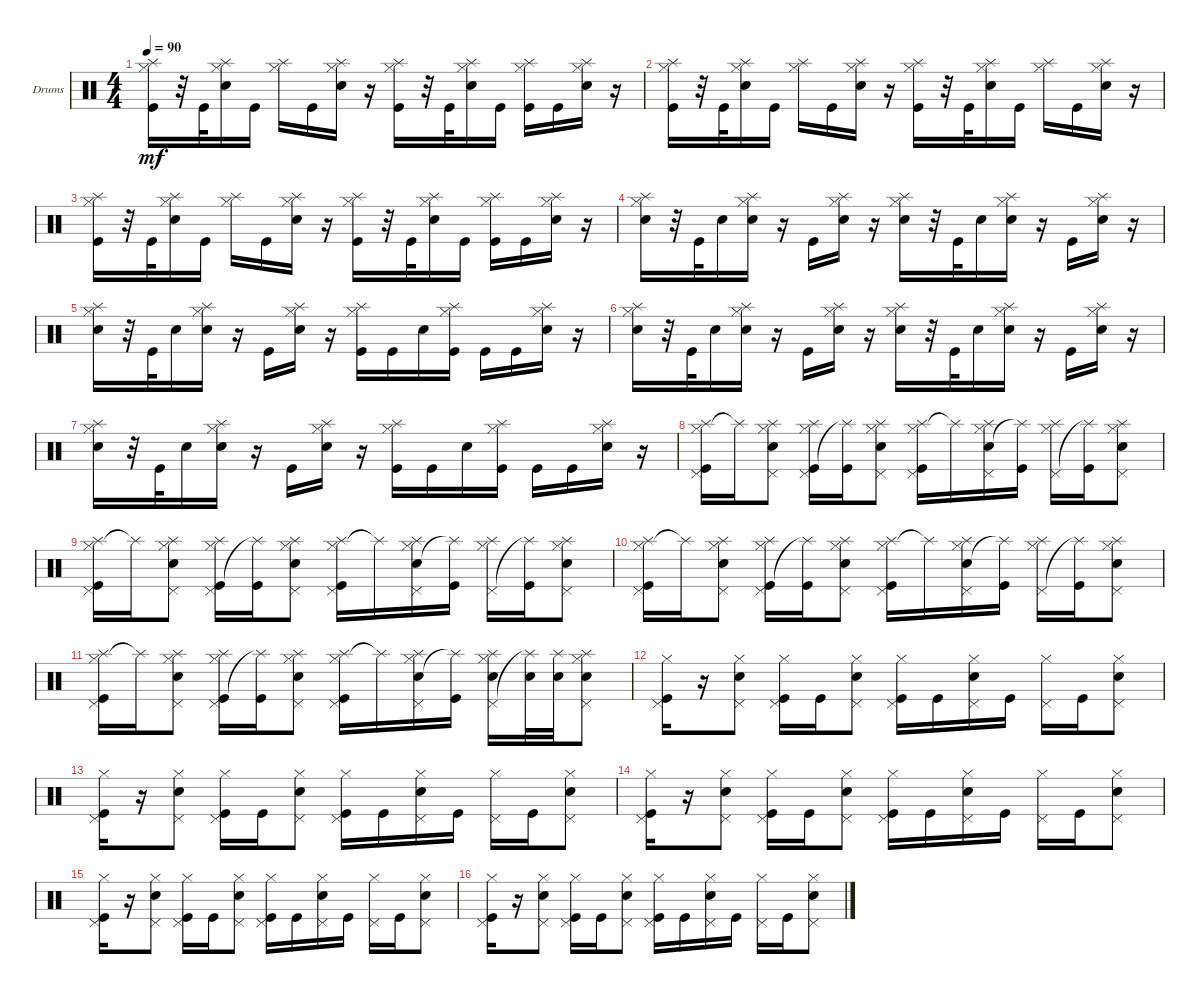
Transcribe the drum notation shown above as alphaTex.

\defaultSystemsLayout 4
\bracketExtendMode groupsimilarinstruments
\firstSystemTrackNameOrientation horizontal
\otherSystemsTrackNameOrientation horizontal
\track ("Drumkit" "Drums") {instrument percussion}
\staff {score}
\articulation defaults
\ts (4 4)
\tempo 90
\clef neutral
\ks c
("Hi-Hat (closed)" "Splash (hit)" "Kick (hit)").16{dy mf} r.32 "Kick (hit)".32 ("Hi-Hat (closed)" "Splash (hit)" "Snare (hit) 2").16 "Kick (hit)".16 ("Splash (hit)" "Hi-Hat (closed)").16 "Kick (hit)".16 ("Snare (hit) 2" "Hi-Hat (closed)" "Splash (hit)").16 r.16 ("Hi-Hat (closed)" "Splash (hit)" "Kick (hit)").16 r.32 "Kick (hit)".32 ("Hi-Hat (closed)" "Splash (hit)" "Snare (hit) 2").16 "Kick (hit)".16 ("Splash (hit)" "Hi-Hat (closed)" "Kick (hit)").16 "Kick (hit)".16 ("Snare (hit) 2" "Hi-Hat (closed)" "Splash (hit)").16 r.16 |
("Hi-Hat (closed)" "Splash (hit)" "Kick (hit)").16 r.32 "Kick (hit)".32 ("Hi-Hat (closed)" "Splash (hit)" "Snare (hit) 2").16 "Kick (hit)".16 ("Splash (hit)" "Hi-Hat (closed)").16 "Kick (hit)".16 ("Snare (hit) 2" "Hi-Hat (closed)" "Splash (hit)").16 r.16 ("Hi-Hat (closed)" "Splash (hit)" "Kick (hit)").16 r.32 "Kick (hit)".32 ("Hi-Hat (closed)" "Splash (hit)" "Snare (hit) 2").16 "Kick (hit)".16 ("Splash (hit)" "Hi-Hat (closed)").16 "Kick (hit)".16 ("Snare (hit) 2" "Hi-Hat (closed)" "Splash (hit)").16 r.16 |
("Hi-Hat (closed)" "Splash (hit)" "Kick (hit)").16 r.32 "Kick (hit)".32 ("Hi-Hat (closed)" "Splash (hit)" "Snare (hit) 2").16 "Kick (hit)".16 ("Splash (hit)" "Hi-Hat (closed)").16 "Kick (hit)".16 ("Snare (hit) 2" "Hi-Hat (closed)" "Splash (hit)").16 r.16 ("Hi-Hat (closed)" "Splash (hit)" "Kick (hit)").16 r.32 "Kick (hit)".32 ("Hi-Hat (closed)" "Splash (hit)" "Snare (hit) 2").16 "Kick (hit)".16 ("Splash (hit)" "Hi-Hat (closed)" "Kick (hit)").16 "Kick (hit)".16 ("Snare (hit) 2" "Hi-Hat (closed)" "Splash (hit)").16 r.16 |
("Hi-Hat (closed)" "Splash (hit)" "Snare (hit) 2").16 r.32 "Kick (hit)".32 "Snare (hit) 2".16 ("Snare (hit) 2" "Hi-Hat (closed)" "Splash (hit)").16 r.16 "Kick (hit)".16 ("Snare (hit) 2" "Splash (hit)" "Hi-Hat (closed)").16 r.16 ("Snare (hit) 2" "Splash (hit)" "Hi-Hat (closed)").16 r.32 "Kick (hit)".32 "Snare (hit) 2".16 ("Snare (hit) 2" "Hi-Hat (closed)" "Splash (hit)").16 r.16 "Kick (hit)".16 ("Snare (hit) 2" "Hi-Hat (closed)" "Splash (hit)").16 r.16 |
("Hi-Hat (closed)" "Splash (hit)" "Snare (hit) 2").16 r.32 "Kick (hit)".32 "Snare (hit) 2".16 ("Snare (hit) 2" "Hi-Hat (closed)" "Splash (hit)").16 r.16 "Kick (hit)".16 ("Snare (hit) 2" "Splash (hit)" "Hi-Hat (closed)").16 r.16 ("Splash (hit)" "Hi-Hat (closed)" "Kick (hit)").16 "Kick (hit)".16 "Snare (hit) 2".16 ("Hi-Hat (closed)" "Splash (hit)" "Kick (hit)").16 "Kick (hit)".16 "Kick (hit)".16 ("Snare (hit) 2" "Hi-Hat (closed)" "Splash (hit)").16 r.16 |
("Hi-Hat (closed)" "Splash (hit)" "Snare (hit) 2").16 r.32 "Kick (hit)".32 "Snare (hit) 2".16 ("Snare (hit) 2" "Hi-Hat (closed)" "Splash (hit)").16 r.16 "Kick (hit)".16 ("Snare (hit) 2" "Splash (hit)" "Hi-Hat (closed)").16 r.16 ("Snare (hit) 2" "Splash (hit)" "Hi-Hat (closed)").16 r.32 "Kick (hit)".32 "Snare (hit) 2".16 ("Snare (hit) 2" "Hi-Hat (closed)" "Splash (hit)").16 r.16 "Kick (hit)".16 ("Snare (hit) 2" "Hi-Hat (closed)" "Splash (hit)").16 r.16 |
("Hi-Hat (closed)" "Splash (hit)" "Snare (hit) 2").16 r.32 "Kick (hit)".32 "Snare (hit) 2".16 ("Snare (hit) 2" "Hi-Hat (closed)" "Splash (hit)").16 r.16 "Kick (hit)".16 ("Snare (hit) 2" "Splash (hit)" "Hi-Hat (closed)").16 r.16 ("Splash (hit)" "Hi-Hat (closed)" "Kick (hit)").16 "Kick (hit)".16 "Snare (hit) 2".16 ("Hi-Hat (closed)" "Splash (hit)" "Kick (hit)").16 "Kick (hit)".16 "Kick (hit)".16 ("Snare (hit) 2" "Hi-Hat (closed)" "Splash (hit)").16 r.16 |
("Hi-Hat (closed)" "Kick (hit)" "Pedal Hi-Hat (hit)" "Splash (hit)").16 "Splash (hit)"{t}.16 ("Hi-Hat (closed)" "Snare (hit) 2" "Pedal Hi-Hat (hit)" "Splash (hit)").8 ("Hi-Hat (closed)" "Kick (hit)" "Pedal Hi-Hat (hit)" "Splash (hit)").16 ("Kick (hit)" "Splash (hit)"{t}).16 ("Hi-Hat (closed)" "Snare (hit) 2" "Pedal Hi-Hat (hit)" "Splash (hit)").8 ("Hi-Hat (closed)" "Kick (hit)" "Pedal Hi-Hat (hit)" "Splash (hit)").16 "Splash (hit)"{t}.16 ("Hi-Hat (closed)" "Snare (hit) 2" "Pedal Hi-Hat (hit)" "Splash (hit)").16 ("Kick (hit)" "Splash (hit)"{t}).16 ("Hi-Hat (closed)" "Pedal Hi-Hat (hit)" "Splash (hit)").16 ("Kick (hit)" "Splash (hit)"{t}).16 ("Hi-Hat (closed)" "Snare (hit) 2" "Pedal Hi-Hat (hit)" "Splash (hit)").8 |
("Hi-Hat (closed)" "Kick (hit)" "Pedal Hi-Hat (hit)" "Splash (hit)").16 "Splash (hit)"{t}.16 ("Hi-Hat (closed)" "Snare (hit) 2" "Pedal Hi-Hat (hit)" "Splash (hit)").8 ("Hi-Hat (closed)" "Kick (hit)" "Pedal Hi-Hat (hit)" "Splash (hit)").16 ("Kick (hit)" "Splash (hit)"{t}).16 ("Hi-Hat (closed)" "Snare (hit) 2" "Pedal Hi-Hat (hit)" "Splash (hit)").8 ("Hi-Hat (closed)" "Kick (hit)" "Pedal Hi-Hat (hit)" "Splash (hit)").16 "Splash (hit)"{t}.16 ("Hi-Hat (closed)" "Snare (hit) 2" "Pedal Hi-Hat (hit)" "Splash (hit)").16 ("Kick (hit)" "Splash (hit)"{t}).16 ("Hi-Hat (closed)" "Pedal Hi-Hat (hit)" "Splash (hit)").16 ("Kick (hit)" "Splash (hit)"{t}).16 ("Hi-Hat (closed)" "Snare (hit) 2" "Pedal Hi-Hat (hit)" "Splash (hit)").8 |
("Hi-Hat (closed)" "Kick (hit)" "Pedal Hi-Hat (hit)" "Splash (hit)").16 "Splash (hit)"{t}.16 ("Hi-Hat (closed)" "Snare (hit) 2" "Pedal Hi-Hat (hit)" "Splash (hit)").8 ("Hi-Hat (closed)" "Kick (hit)" "Pedal Hi-Hat (hit)" "Splash (hit)").16 ("Kick (hit)" "Splash (hit)"{t}).16 ("Hi-Hat (closed)" "Snare (hit) 2" "Pedal Hi-Hat (hit)" "Splash (hit)").8 ("Hi-Hat (closed)" "Kick (hit)" "Pedal Hi-Hat (hit)" "Splash (hit)").16 "Splash (hit)"{t}.16 ("Hi-Hat (closed)" "Snare (hit) 2" "Pedal Hi-Hat (hit)" "Splash (hit)").16 ("Kick (hit)" "Splash (hit)"{t}).16 ("Hi-Hat (closed)" "Pedal Hi-Hat (hit)" "Splash (hit)").16 ("Kick (hit)" "Splash (hit)"{t}).16 ("Hi-Hat (closed)" "Snare (hit) 2" "Pedal Hi-Hat (hit)" "Splash (hit)").8 |
("Hi-Hat (closed)" "Kick (hit)" "Pedal Hi-Hat (hit)" "Splash (hit)").16 "Splash (hit)"{t}.16 ("Hi-Hat (closed)" "Snare (hit) 2" "Pedal Hi-Hat (hit)" "Splash (hit)").8 ("Hi-Hat (closed)" "Kick (hit)" "Pedal Hi-Hat (hit)" "Splash (hit)").16 ("Kick (hit)" "Splash (hit)"{t}).16 ("Hi-Hat (closed)" "Snare (hit) 2" "Pedal Hi-Hat (hit)" "Splash (hit)").8 ("Hi-Hat (closed)" "Kick (hit)" "Pedal Hi-Hat (hit)" "Splash (hit)").16 "Splash (hit)"{t}.16 ("Hi-Hat (closed)" "Snare (hit) 2" "Pedal Hi-Hat (hit)" "Splash (hit)").16 ("Kick (hit)" "Splash (hit)"{t}).16 ("Hi-Hat (closed)" "Pedal Hi-Hat (hit)" "Splash (hit)" "Snare (hit) 2").16 ("Snare (hit) 2" "Splash (hit)"{t}).32 ("Splash (hit)" "Snare (hit) 2").32 ("Hi-Hat (closed)" "Snare (hit) 2" "Pedal Hi-Hat (hit)" "Splash (hit)").8 |
("Hi-Hat (closed)" "Kick (hit)" "Pedal Hi-Hat (hit)").16 r.16 ("Hi-Hat (closed)" "Snare (hit) 2" "Pedal Hi-Hat (hit)").8 ("Hi-Hat (closed)" "Kick (hit)" "Pedal Hi-Hat (hit)").16 "Kick (hit)".16 ("Hi-Hat (closed)" "Snare (hit) 2" "Pedal Hi-Hat (hit)").8 ("Hi-Hat (closed)" "Kick (hit)" "Pedal Hi-Hat (hit)").16 "Kick (hit)".16 ("Hi-Hat (closed)" "Snare (hit) 2" "Pedal Hi-Hat (hit)").16 "Kick (hit)".16 ("Hi-Hat (closed)" "Pedal Hi-Hat (hit)").16 "Kick (hit)".16 ("Hi-Hat (closed)" "Snare (hit) 2" "Pedal Hi-Hat (hit)").8 |
("Hi-Hat (closed)" "Kick (hit)" "Pedal Hi-Hat (hit)").16 r.16 ("Hi-Hat (closed)" "Snare (hit) 2" "Pedal Hi-Hat (hit)").8 ("Hi-Hat (closed)" "Kick (hit)" "Pedal Hi-Hat (hit)").16 "Kick (hit)".16 ("Hi-Hat (closed)" "Snare (hit) 2" "Pedal Hi-Hat (hit)").8 ("Hi-Hat (closed)" "Kick (hit)" "Pedal Hi-Hat (hit)").16 "Kick (hit)".16 ("Hi-Hat (closed)" "Snare (hit) 2" "Pedal Hi-Hat (hit)").16 "Kick (hit)".16 ("Hi-Hat (closed)" "Pedal Hi-Hat (hit)").16 "Kick (hit)".16 ("Hi-Hat (closed)" "Snare (hit) 2" "Pedal Hi-Hat (hit)").8 |
("Hi-Hat (closed)" "Kick (hit)" "Pedal Hi-Hat (hit)").16 r.16 ("Hi-Hat (closed)" "Snare (hit) 2" "Pedal Hi-Hat (hit)").8 ("Hi-Hat (closed)" "Kick (hit)" "Pedal Hi-Hat (hit)").16 "Kick (hit)".16 ("Hi-Hat (closed)" "Snare (hit) 2" "Pedal Hi-Hat (hit)").8 ("Hi-Hat (closed)" "Kick (hit)" "Pedal Hi-Hat (hit)").16 "Kick (hit)".16 ("Hi-Hat (closed)" "Snare (hit) 2" "Pedal Hi-Hat (hit)").16 "Kick (hit)".16 ("Hi-Hat (closed)" "Pedal Hi-Hat (hit)").16 "Kick (hit)".16 ("Hi-Hat (closed)" "Snare (hit) 2" "Pedal Hi-Hat (hit)").8 |
("Hi-Hat (closed)" "Kick (hit)" "Pedal Hi-Hat (hit)").16 r.16 ("Hi-Hat (closed)" "Snare (hit) 2" "Pedal Hi-Hat (hit)").8 ("Hi-Hat (closed)" "Kick (hit)" "Pedal Hi-Hat (hit)").16 "Kick (hit)".16 ("Hi-Hat (closed)" "Snare (hit) 2" "Pedal Hi-Hat (hit)").8 ("Hi-Hat (closed)" "Kick (hit)" "Pedal Hi-Hat (hit)").16 "Kick (hit)".16 ("Hi-Hat (closed)" "Snare (hit) 2" "Pedal Hi-Hat (hit)").16 "Kick (hit)".16 ("Hi-Hat (closed)" "Pedal Hi-Hat (hit)").16 "Kick (hit)".16 ("Hi-Hat (closed)" "Snare (hit) 2" "Pedal Hi-Hat (hit)").8 |
("Hi-Hat (closed)" "Kick (hit)" "Pedal Hi-Hat (hit)").16 r.16 ("Hi-Hat (closed)" "Snare (hit) 2" "Pedal Hi-Hat (hit)").8 ("Hi-Hat (closed)" "Kick (hit)" "Pedal Hi-Hat (hit)").16 "Kick (hit)".16 ("Hi-Hat (closed)" "Snare (hit) 2" "Pedal Hi-Hat (hit)").8 ("Hi-Hat (closed)" "Kick (hit)" "Pedal Hi-Hat (hit)").16 "Kick (hit)".16 ("Hi-Hat (closed)" "Snare (hit) 2" "Pedal Hi-Hat (hit)").16 "Kick (hit)".16 ("Hi-Hat (closed)" "Pedal Hi-Hat (hit)").16 "Kick (hit)".16 ("Hi-Hat (closed)" "Snare (hit) 2" "Pedal Hi-Hat (hit)").8
